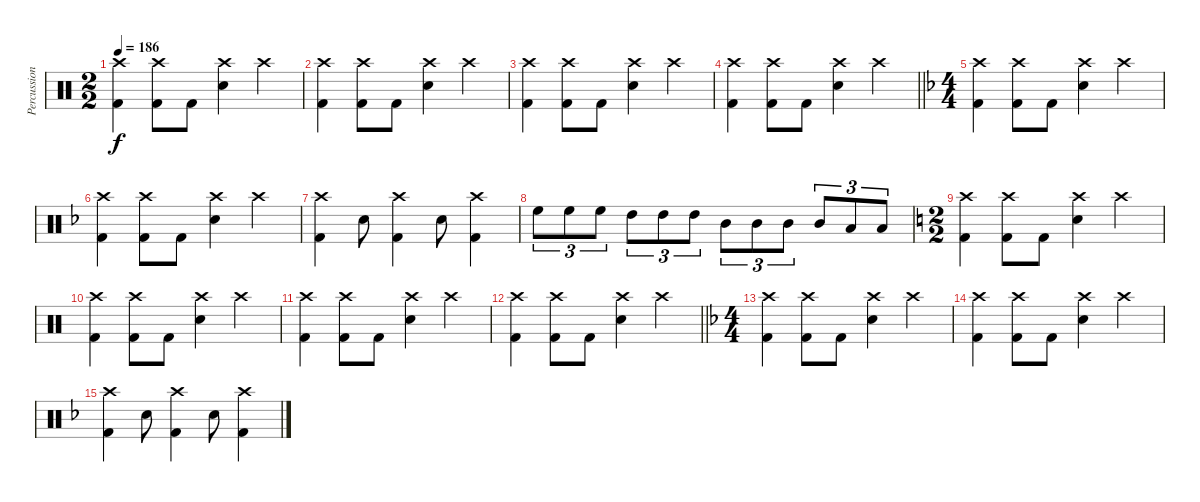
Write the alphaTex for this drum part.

\track ("Percussion" "Percussion") {instrument percussion}
\staff {score}
\articulation defaults
\ts (2 2)
\tempo 186
\clef neutral
\ks c
("Crash high (hit)" "Kick (hit) 2").4{dy f} ("Crash high (hit)" "Kick (hit) 2").8 "Kick (hit) 2".8 ("Crash high (hit)" "Snare (hit) 2").4 "Crash high (hit)".4 |
("Crash high (hit)" "Kick (hit) 2").4 ("Crash high (hit)" "Kick (hit) 2").8 "Kick (hit) 2".8 ("Crash high (hit)" "Snare (hit) 2").4 "Crash high (hit)".4 |
("Crash high (hit)" "Kick (hit) 2").4 ("Crash high (hit)" "Kick (hit) 2").8 "Kick (hit) 2".8 ("Crash high (hit)" "Snare (hit) 2").4 "Crash high (hit)".4 |
\barLineRight lightlight
("Crash high (hit)" "Kick (hit) 2").4 ("Crash high (hit)" "Kick (hit) 2").8 "Kick (hit) 2".8 ("Crash high (hit)" "Snare (hit) 2").4 "Crash high (hit)".4 |
\ts (4 4)
\ks f
("Crash high (hit)" "Kick (hit) 2").4 ("Crash high (hit)" "Kick (hit) 2").8 "Kick (hit) 2".8 ("Crash high (hit)" "Snare (hit) 2").4 "Crash high (hit)".4 |
("Crash high (hit)" "Kick (hit) 2").4 ("Crash high (hit)" "Kick (hit) 2").8 "Kick (hit) 2".8 ("Crash high (hit)" "Snare (hit) 2").4 "Crash high (hit)".4 |
("Crash high (hit)" "Kick (hit) 2").4 "Snare (hit) 2".8 ("Crash high (hit)" "Kick (hit) 2").4 "Snare (hit) 2".8 ("Crash high (hit)" "Kick (hit) 2").4 |
"High Floor Tom (hit)".8{tu (3 2)} "High Floor Tom (hit)".8{tu (3 2)} "High Floor Tom (hit)".8{tu (3 2)} "High Tom (hit)".8{tu (3 2)} "High Tom (hit)".8{tu (3 2)} "High Tom (hit)".8{tu (3 2)} "Mid Tom (hit)".8{tu (3 2)} "Mid Tom (hit)".8{tu (3 2)} "Mid Tom (hit)".8{tu (3 2)} "Mid Tom (hit)".8{tu (3 2)} "Low Tom (hit)".8{tu (3 2)} "Low Tom (hit)".8{tu (3 2)} |
\ts (2 2)
\ks c
("Crash high (hit)" "Kick (hit) 2").4 ("Crash high (hit)" "Kick (hit) 2").8 "Kick (hit) 2".8 ("Crash high (hit)" "Snare (hit) 2").4 "Crash high (hit)".4 |
("Crash high (hit)" "Kick (hit) 2").4 ("Crash high (hit)" "Kick (hit) 2").8 "Kick (hit) 2".8 ("Crash high (hit)" "Snare (hit) 2").4 "Crash high (hit)".4 |
("Crash high (hit)" "Kick (hit) 2").4 ("Crash high (hit)" "Kick (hit) 2").8 "Kick (hit) 2".8 ("Crash high (hit)" "Snare (hit) 2").4 "Crash high (hit)".4 |
\barLineRight lightlight
("Crash high (hit)" "Kick (hit) 2").4 ("Crash high (hit)" "Kick (hit) 2").8 "Kick (hit) 2".8 ("Crash high (hit)" "Snare (hit) 2").4 "Crash high (hit)".4 |
\ts (4 4)
\ks f
("Crash high (hit)" "Kick (hit) 2").4 ("Crash high (hit)" "Kick (hit) 2").8 "Kick (hit) 2".8 ("Crash high (hit)" "Snare (hit) 2").4 "Crash high (hit)".4 |
("Crash high (hit)" "Kick (hit) 2").4 ("Crash high (hit)" "Kick (hit) 2").8 "Kick (hit) 2".8 ("Crash high (hit)" "Snare (hit) 2").4 "Crash high (hit)".4 |
("Crash high (hit)" "Kick (hit) 2").4 "Snare (hit) 2".8 ("Crash high (hit)" "Kick (hit) 2").4 "Snare (hit) 2".8 ("Crash high (hit)" "Kick (hit) 2").4
